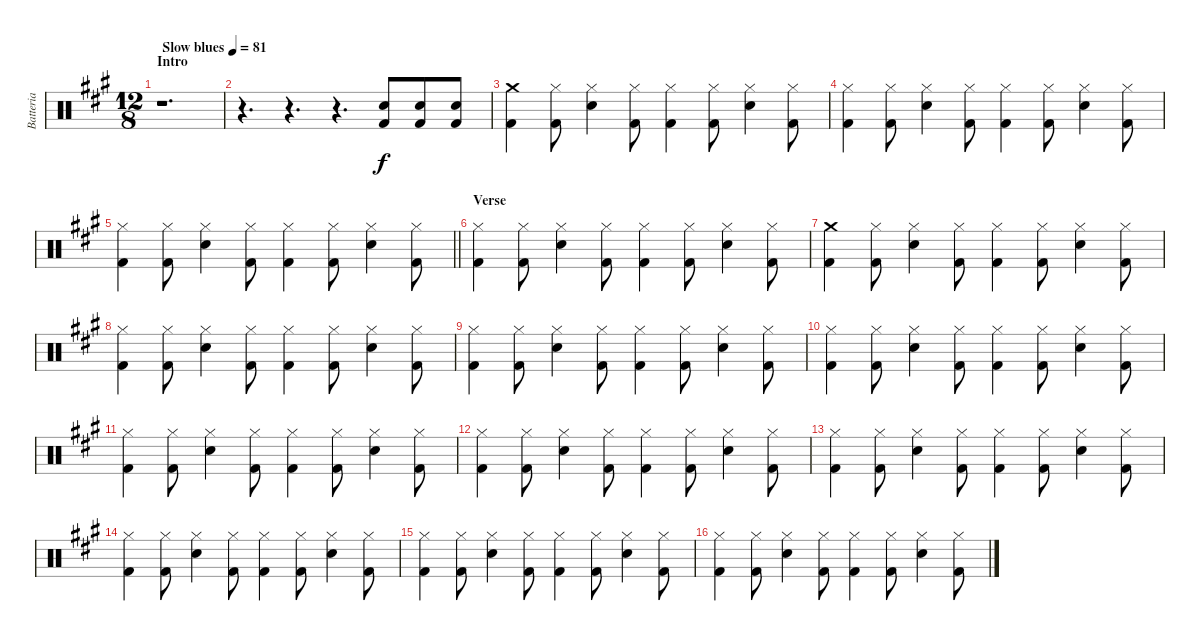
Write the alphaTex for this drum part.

\track ("Batteria" "Batteria") {instrument percussion}
\staff {score}
\articulation defaults
\ts (12 8)
\section ("" "Intro")
\tempo (81 "Slow blues")
\clef neutral
\ks a
r.1{d dy f} |
r.4{d} r.4{d} r.4{d} ("Electric Snare (hit)" "Kick (hit) 2").8 ("Electric Snare (hit)" "Kick (hit) 2").8 ("Electric Snare (hit)" "Kick (hit) 2").8 |
("Crash medium (hit)" "Kick (hit) 2").4 ("Hi-Hat (closed)" "Kick (hit) 2").8 ("Electric Snare (hit)" "Hi-Hat (closed)").4 ("Hi-Hat (closed)" "Kick (hit) 2").8 ("Hi-Hat (closed)" "Kick (hit) 2").4 ("Hi-Hat (closed)" "Kick (hit) 2").8 ("Electric Snare (hit)" "Hi-Hat (closed)").4 ("Hi-Hat (closed)" "Kick (hit) 2").8 |
("Hi-Hat (closed)" "Kick (hit) 2").4 ("Hi-Hat (closed)" "Kick (hit) 2").8 ("Electric Snare (hit)" "Hi-Hat (closed)").4 ("Hi-Hat (closed)" "Kick (hit) 2").8 ("Hi-Hat (closed)" "Kick (hit) 2").4 ("Hi-Hat (closed)" "Kick (hit) 2").8 ("Electric Snare (hit)" "Hi-Hat (closed)").4 ("Hi-Hat (closed)" "Kick (hit) 2").8 |
\barLineRight lightlight
("Hi-Hat (closed)" "Kick (hit) 2").4 ("Hi-Hat (closed)" "Kick (hit) 2").8 ("Electric Snare (hit)" "Hi-Hat (closed)").4 ("Hi-Hat (closed)" "Kick (hit) 2").8 ("Hi-Hat (closed)" "Kick (hit) 2").4 ("Hi-Hat (closed)" "Kick (hit) 2").8 ("Electric Snare (hit)" "Hi-Hat (closed)").4 ("Hi-Hat (closed)" "Kick (hit) 2").8 |
\section ("" "Verse")
("Hi-Hat (closed)" "Kick (hit) 2").4 ("Hi-Hat (closed)" "Kick (hit) 2").8 ("Electric Snare (hit)" "Hi-Hat (closed)").4 ("Hi-Hat (closed)" "Kick (hit) 2").8 ("Hi-Hat (closed)" "Kick (hit) 2").4 ("Hi-Hat (closed)" "Kick (hit) 2").8 ("Electric Snare (hit)" "Hi-Hat (closed)").4 ("Hi-Hat (closed)" "Kick (hit) 2").8 |
("Crash medium (hit)" "Kick (hit) 2").4 ("Hi-Hat (closed)" "Kick (hit) 2").8 ("Electric Snare (hit)" "Hi-Hat (closed)").4 ("Hi-Hat (closed)" "Kick (hit) 2").8 ("Hi-Hat (closed)" "Kick (hit) 2").4 ("Hi-Hat (closed)" "Kick (hit) 2").8 ("Electric Snare (hit)" "Hi-Hat (closed)").4 ("Hi-Hat (closed)" "Kick (hit) 2").8 |
("Hi-Hat (closed)" "Kick (hit) 2").4 ("Hi-Hat (closed)" "Kick (hit) 2").8 ("Electric Snare (hit)" "Hi-Hat (closed)").4 ("Hi-Hat (closed)" "Kick (hit) 2").8 ("Hi-Hat (closed)" "Kick (hit) 2").4 ("Hi-Hat (closed)" "Kick (hit) 2").8 ("Electric Snare (hit)" "Hi-Hat (closed)").4 ("Hi-Hat (closed)" "Kick (hit) 2").8 |
("Hi-Hat (closed)" "Kick (hit) 2").4 ("Hi-Hat (closed)" "Kick (hit) 2").8 ("Electric Snare (hit)" "Hi-Hat (closed)").4 ("Hi-Hat (closed)" "Kick (hit) 2").8 ("Hi-Hat (closed)" "Kick (hit) 2").4 ("Hi-Hat (closed)" "Kick (hit) 2").8 ("Electric Snare (hit)" "Hi-Hat (closed)").4 ("Hi-Hat (closed)" "Kick (hit) 2").8 |
("Hi-Hat (closed)" "Kick (hit) 2").4 ("Hi-Hat (closed)" "Kick (hit) 2").8 ("Electric Snare (hit)" "Hi-Hat (closed)").4 ("Hi-Hat (closed)" "Kick (hit) 2").8 ("Hi-Hat (closed)" "Kick (hit) 2").4 ("Hi-Hat (closed)" "Kick (hit) 2").8 ("Electric Snare (hit)" "Hi-Hat (closed)").4 ("Hi-Hat (closed)" "Kick (hit) 2").8 |
("Hi-Hat (closed)" "Kick (hit) 2").4 ("Hi-Hat (closed)" "Kick (hit) 2").8 ("Electric Snare (hit)" "Hi-Hat (closed)").4 ("Hi-Hat (closed)" "Kick (hit) 2").8 ("Hi-Hat (closed)" "Kick (hit) 2").4 ("Hi-Hat (closed)" "Kick (hit) 2").8 ("Electric Snare (hit)" "Hi-Hat (closed)").4 ("Hi-Hat (closed)" "Kick (hit) 2").8 |
("Hi-Hat (closed)" "Kick (hit) 2").4 ("Hi-Hat (closed)" "Kick (hit) 2").8 ("Electric Snare (hit)" "Hi-Hat (closed)").4 ("Hi-Hat (closed)" "Kick (hit) 2").8 ("Hi-Hat (closed)" "Kick (hit) 2").4 ("Hi-Hat (closed)" "Kick (hit) 2").8 ("Electric Snare (hit)" "Hi-Hat (closed)").4 ("Hi-Hat (closed)" "Kick (hit) 2").8 |
("Hi-Hat (closed)" "Kick (hit) 2").4 ("Hi-Hat (closed)" "Kick (hit) 2").8 ("Electric Snare (hit)" "Hi-Hat (closed)").4 ("Hi-Hat (closed)" "Kick (hit) 2").8 ("Hi-Hat (closed)" "Kick (hit) 2").4 ("Hi-Hat (closed)" "Kick (hit) 2").8 ("Electric Snare (hit)" "Hi-Hat (closed)").4 ("Hi-Hat (closed)" "Kick (hit) 2").8 |
("Hi-Hat (closed)" "Kick (hit) 2").4 ("Hi-Hat (closed)" "Kick (hit) 2").8 ("Electric Snare (hit)" "Hi-Hat (closed)").4 ("Hi-Hat (closed)" "Kick (hit) 2").8 ("Hi-Hat (closed)" "Kick (hit) 2").4 ("Hi-Hat (closed)" "Kick (hit) 2").8 ("Electric Snare (hit)" "Hi-Hat (closed)").4 ("Hi-Hat (closed)" "Kick (hit) 2").8 |
("Hi-Hat (closed)" "Kick (hit) 2").4 ("Hi-Hat (closed)" "Kick (hit) 2").8 ("Electric Snare (hit)" "Hi-Hat (closed)").4 ("Hi-Hat (closed)" "Kick (hit) 2").8 ("Hi-Hat (closed)" "Kick (hit) 2").4 ("Hi-Hat (closed)" "Kick (hit) 2").8 ("Electric Snare (hit)" "Hi-Hat (closed)").4 ("Hi-Hat (closed)" "Kick (hit) 2").8 |
("Hi-Hat (closed)" "Kick (hit) 2").4 ("Hi-Hat (closed)" "Kick (hit) 2").8 ("Electric Snare (hit)" "Hi-Hat (closed)").4 ("Hi-Hat (closed)" "Kick (hit) 2").8 ("Hi-Hat (closed)" "Kick (hit) 2").4 ("Hi-Hat (closed)" "Kick (hit) 2").8 ("Electric Snare (hit)" "Hi-Hat (closed)").4 ("Hi-Hat (closed)" "Kick (hit) 2").8
